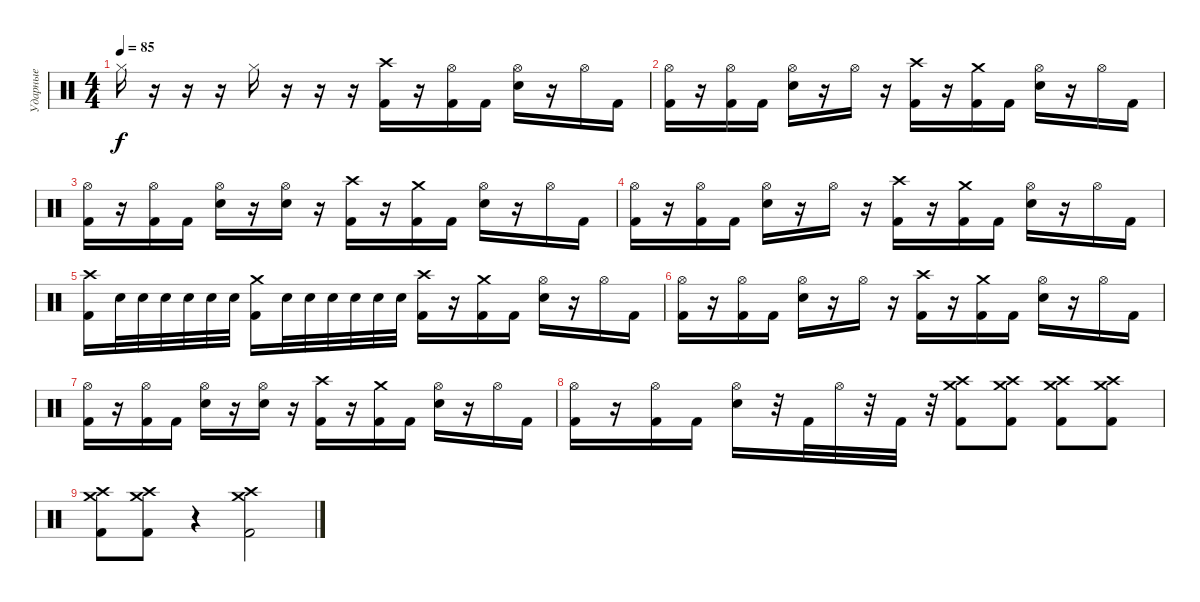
\track ("Ударные" "Ударные") {instrument percussion}
\staff {score}
\articulation defaults
\ts (4 4)
\tempo 85
\clef neutral
\ks c "Hi-Hat (closed)".16{dy f}
r.16 r.16 r.16 "Hi-Hat (closed)".16 r.16 r.16 r.16 ("Crash high (hit)" "Kick (hit) 2").16 r.16 ("Hi-Hat (open)" "Kick (hit) 2").16 "Kick (hit) 2".16 ("Hi-Hat (open)" "Electric Snare (hit)").16 r.16 "Hi-Hat (open)".16 "Kick (hit) 2".16 |
("Hi-Hat (open)" "Kick (hit) 2").16 r.16 ("Hi-Hat (open)" "Kick (hit) 2").16 "Kick (hit) 2".16 ("Hi-Hat (open)" "Electric Snare (hit)").16 r.16 "Hi-Hat (open)".16 r.16 ("Crash high (hit)" "Kick (hit) 2").16 r.16 ("Crash medium (hit)" "Kick (hit) 2").16 "Kick (hit) 2".16 ("Hi-Hat (open)" "Electric Snare (hit)").16 r.16 "Hi-Hat (open)".16 "Kick (hit) 2".16 |
("Hi-Hat (open)" "Kick (hit) 2").16 r.16 ("Hi-Hat (open)" "Kick (hit) 2").16 "Kick (hit) 2".16 ("Hi-Hat (open)" "Electric Snare (hit)").16 r.16 ("Hi-Hat (open)" "Electric Snare (hit)").16 r.16 ("Crash high (hit)" "Kick (hit) 2").16 r.16 ("Crash medium (hit)" "Kick (hit) 2").16 "Kick (hit) 2".16 ("Hi-Hat (open)" "Electric Snare (hit)").16 r.16 "Hi-Hat (open)".16 "Kick (hit) 2".16 |
("Hi-Hat (open)" "Kick (hit) 2").16 r.16 ("Hi-Hat (open)" "Kick (hit) 2").16 "Kick (hit) 2".16 ("Hi-Hat (open)" "Electric Snare (hit)").16 r.16 "Hi-Hat (open)".16 r.16 ("Crash high (hit)" "Kick (hit) 2").16 r.16 ("Crash medium (hit)" "Kick (hit) 2").16 "Kick (hit) 2".16 ("Hi-Hat (open)" "Electric Snare (hit)").16 r.16 "Hi-Hat (open)".16 "Kick (hit) 2".16 |
("Crash high (hit)" "Kick (hit) 2").16 "Electric Snare (hit)".32 "Electric Snare (hit)".32 "Electric Snare (hit)".32 "Electric Snare (hit)".32 "Electric Snare (hit)".32 "Electric Snare (hit)".32 ("Crash medium (hit)" "Kick (hit) 2").16 "Electric Snare (hit)".32 "Electric Snare (hit)".32 "Electric Snare (hit)".32 "Electric Snare (hit)".32 "Electric Snare (hit)".32 "Electric Snare (hit)".32 ("Crash high (hit)" "Kick (hit) 2").16 r.16 ("Crash medium (hit)" "Kick (hit) 2").16 "Kick (hit) 2".16 ("Hi-Hat (open)" "Electric Snare (hit)").16 r.16 "Hi-Hat (open)".16 "Kick (hit) 2".16 |
("Hi-Hat (open)" "Kick (hit) 2").16 r.16 ("Hi-Hat (open)" "Kick (hit) 2").16 "Kick (hit) 2".16 ("Hi-Hat (open)" "Electric Snare (hit)").16 r.16 "Hi-Hat (open)".16 r.16 ("Crash high (hit)" "Kick (hit) 2").16 r.16 ("Crash medium (hit)" "Kick (hit) 2").16 "Kick (hit) 2".16 ("Hi-Hat (open)" "Electric Snare (hit)").16 r.16 "Hi-Hat (open)".16 "Kick (hit) 2".16 |
("Hi-Hat (open)" "Kick (hit) 2").16 r.16 ("Hi-Hat (open)" "Kick (hit) 2").16 "Kick (hit) 2".16 ("Hi-Hat (open)" "Electric Snare (hit)").16 r.16 ("Hi-Hat (open)" "Electric Snare (hit)").16 r.16 ("Crash high (hit)" "Kick (hit) 2").16 r.16 ("Crash medium (hit)" "Kick (hit) 2").16 "Kick (hit) 2".16 ("Hi-Hat (open)" "Electric Snare (hit)").16 r.16 "Hi-Hat (open)".16 "Kick (hit) 2".16 |
("Hi-Hat (open)" "Kick (hit) 2").16 r.16 ("Hi-Hat (open)" "Kick (hit) 2").16 "Kick (hit) 2".16 ("Hi-Hat (open)" "Electric Snare (hit)").16 r.32 "Kick (hit) 2".32 "Hi-Hat (open)".32 r.32 "Kick (hit) 2".32 r.32 ("Crash medium (hit)" "Crash high (hit)" "Kick (hit) 2").8 ("Crash medium (hit)" "Crash high (hit)" "Kick (hit) 2").8 ("Crash high (hit)" "Crash medium (hit)" "Kick (hit) 2").8 ("Crash high (hit)" "Crash medium (hit)" "Kick (hit) 2").8 |
("Crash high (hit)" "Crash medium (hit)" "Kick (hit) 2").8 ("Crash high (hit)" "Crash medium (hit)" "Kick (hit) 2").8 r.4 ("Crash high (hit)" "Crash medium (hit)" "Kick (hit) 2").2
